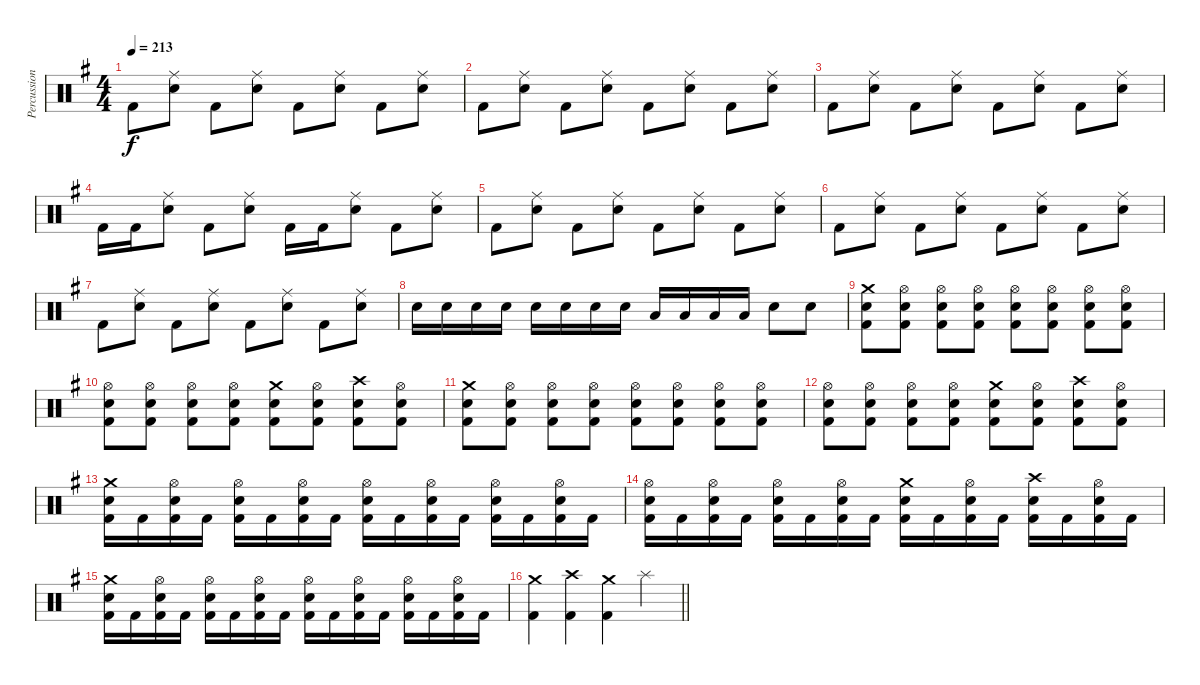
\track ("Percussion" "Percussion") {instrument percussion}
\staff {score}
\articulation defaults
\ts (4 4)
\tempo 213
\clef neutral
\ks eminor "Kick (hit) 2".8{dy f}
("Ride (middle)" "Snare (hit) 2").8 "Kick (hit) 2".8 ("Ride (middle)" "Snare (hit) 2").8 "Kick (hit) 2".8 ("Ride (middle)" "Snare (hit) 2").8 "Kick (hit) 2".8 ("Ride (middle)" "Snare (hit) 2").8 |
"Kick (hit) 2".8 ("Ride (middle)" "Snare (hit) 2").8 "Kick (hit) 2".8 ("Ride (middle)" "Snare (hit) 2").8 "Kick (hit) 2".8 ("Ride (middle)" "Snare (hit) 2").8 "Kick (hit) 2".8 ("Ride (middle)" "Snare (hit) 2").8 |
"Kick (hit) 2".8 ("Ride (middle)" "Snare (hit) 2").8 "Kick (hit) 2".8 ("Ride (middle)" "Snare (hit) 2").8 "Kick (hit) 2".8 ("Ride (middle)" "Snare (hit) 2").8 "Kick (hit) 2".8 ("Ride (middle)" "Snare (hit) 2").8 |
"Kick (hit) 2".16 "Kick (hit) 2".16 ("Ride (middle)" "Snare (hit) 2").8 "Kick (hit) 2".8 ("Ride (middle)" "Snare (hit) 2").8 "Kick (hit) 2".16 "Kick (hit) 2".16 ("Ride (middle)" "Snare (hit) 2").8 "Kick (hit) 2".8 ("Ride (middle)" "Snare (hit) 2").8 |
"Kick (hit) 2".8 ("Ride (middle)" "Snare (hit) 2").8 "Kick (hit) 2".8 ("Ride (middle)" "Snare (hit) 2").8 "Kick (hit) 2".8 ("Ride (middle)" "Snare (hit) 2").8 "Kick (hit) 2".8 ("Ride (middle)" "Snare (hit) 2").8 |
"Kick (hit) 2".8 ("Ride (middle)" "Snare (hit) 2").8 "Kick (hit) 2".8 ("Ride (middle)" "Snare (hit) 2").8 "Kick (hit) 2".8 ("Ride (middle)" "Snare (hit) 2").8 "Kick (hit) 2".8 ("Ride (middle)" "Snare (hit) 2").8 |
"Kick (hit) 2".8 ("Ride (middle)" "Snare (hit) 2").8 "Kick (hit) 2".8 ("Ride (middle)" "Snare (hit) 2").8 "Kick (hit) 2".8 ("Ride (middle)" "Snare (hit) 2").8 "Kick (hit) 2".8 ("Ride (middle)" "Snare (hit) 2").8 |
"Snare (hit) 2".16 "Snare (hit) 2".16 "Snare (hit) 2".16 "Snare (hit) 2".16 "Snare (hit) 2".16 "Snare (hit) 2".16 "Snare (hit) 2".16 "Snare (hit) 2".16 "Low Tom (hit)".16 "Low Tom (hit)".16 "Low Tom (hit)".16 "Low Tom (hit)".16 "Snare (hit) 2".8 "Snare (hit) 2".8 |
("Crash medium (hit)" "Snare (hit) 2" "Kick (hit) 2").8 ("Hi-Hat (open)" "Snare (hit) 2" "Kick (hit) 2").8 ("Hi-Hat (open)" "Snare (hit) 2" "Kick (hit) 2").8 ("Hi-Hat (open)" "Snare (hit) 2" "Kick (hit) 2").8 ("Hi-Hat (open)" "Snare (hit) 2" "Kick (hit) 2").8 ("Hi-Hat (open)" "Snare (hit) 2" "Kick (hit) 2").8 ("Hi-Hat (open)" "Snare (hit) 2" "Kick (hit) 2").8 ("Hi-Hat (open)" "Snare (hit) 2" "Kick (hit) 2").8 |
("Hi-Hat (open)" "Snare (hit) 2" "Kick (hit) 2").8 ("Hi-Hat (open)" "Snare (hit) 2" "Kick (hit) 2").8 ("Hi-Hat (open)" "Snare (hit) 2" "Kick (hit) 2").8 ("Hi-Hat (open)" "Snare (hit) 2" "Kick (hit) 2").8 ("Crash medium (hit)" "Snare (hit) 2" "Kick (hit) 2").8 ("Hi-Hat (open)" "Snare (hit) 2" "Kick (hit) 2").8 ("Crash high (hit)" "Snare (hit) 2" "Kick (hit) 2").8 ("Hi-Hat (open)" "Snare (hit) 2" "Kick (hit) 2").8 |
("Crash medium (hit)" "Snare (hit) 2" "Kick (hit) 2").8 ("Hi-Hat (open)" "Snare (hit) 2" "Kick (hit) 2").8 ("Hi-Hat (open)" "Snare (hit) 2" "Kick (hit) 2").8 ("Hi-Hat (open)" "Snare (hit) 2" "Kick (hit) 2").8 ("Hi-Hat (open)" "Snare (hit) 2" "Kick (hit) 2").8 ("Hi-Hat (open)" "Snare (hit) 2" "Kick (hit) 2").8 ("Hi-Hat (open)" "Snare (hit) 2" "Kick (hit) 2").8 ("Hi-Hat (open)" "Snare (hit) 2" "Kick (hit) 2").8 |
("Hi-Hat (open)" "Snare (hit) 2" "Kick (hit) 2").8 ("Hi-Hat (open)" "Snare (hit) 2" "Kick (hit) 2").8 ("Hi-Hat (open)" "Snare (hit) 2" "Kick (hit) 2").8 ("Hi-Hat (open)" "Snare (hit) 2" "Kick (hit) 2").8 ("Crash medium (hit)" "Snare (hit) 2" "Kick (hit) 2").8 ("Hi-Hat (open)" "Snare (hit) 2" "Kick (hit) 2").8 ("Crash high (hit)" "Snare (hit) 2" "Kick (hit) 2").8 ("Hi-Hat (open)" "Snare (hit) 2" "Kick (hit) 2").8 |
("Crash medium (hit)" "Snare (hit) 2" "Kick (hit) 2").16 "Kick (hit) 2".16 ("Hi-Hat (open)" "Snare (hit) 2" "Kick (hit) 2").16 "Kick (hit) 2".16 ("Hi-Hat (open)" "Snare (hit) 2" "Kick (hit) 2").16 "Kick (hit) 2".16 ("Hi-Hat (open)" "Snare (hit) 2" "Kick (hit) 2").16 "Kick (hit) 2".16 ("Hi-Hat (open)" "Snare (hit) 2" "Kick (hit) 2").16 "Kick (hit) 2".16 ("Hi-Hat (open)" "Snare (hit) 2" "Kick (hit) 2").16 "Kick (hit) 2".16 ("Hi-Hat (open)" "Snare (hit) 2" "Kick (hit) 2").16 "Kick (hit) 2".16 ("Hi-Hat (open)" "Snare (hit) 2" "Kick (hit) 2").16 "Kick (hit) 2".16 |
("Hi-Hat (open)" "Snare (hit) 2" "Kick (hit) 2").16 "Kick (hit) 2".16 ("Hi-Hat (open)" "Snare (hit) 2" "Kick (hit) 2").16 "Kick (hit) 2".16 ("Hi-Hat (open)" "Snare (hit) 2" "Kick (hit) 2").16 "Kick (hit) 2".16 ("Hi-Hat (open)" "Snare (hit) 2" "Kick (hit) 2").16 "Kick (hit) 2".16 ("Crash medium (hit)" "Snare (hit) 2" "Kick (hit) 2").16 "Kick (hit) 2".16 ("Hi-Hat (open)" "Snare (hit) 2" "Kick (hit) 2").16 "Kick (hit) 2".16 ("Crash high (hit)" "Snare (hit) 2" "Kick (hit) 2").16 "Kick (hit) 2".16 ("Hi-Hat (open)" "Snare (hit) 2" "Kick (hit) 2").16 "Kick (hit) 2".16 |
("Crash medium (hit)" "Snare (hit) 2" "Kick (hit) 2").16 "Kick (hit) 2".16 ("Hi-Hat (open)" "Snare (hit) 2" "Kick (hit) 2").16 "Kick (hit) 2".16 ("Hi-Hat (open)" "Snare (hit) 2" "Kick (hit) 2").16 "Kick (hit) 2".16 ("Hi-Hat (open)" "Snare (hit) 2" "Kick (hit) 2").16 "Kick (hit) 2".16 ("Hi-Hat (open)" "Snare (hit) 2" "Kick (hit) 2").16 "Kick (hit) 2".16 ("Hi-Hat (open)" "Snare (hit) 2" "Kick (hit) 2").16 "Kick (hit) 2".16 ("Hi-Hat (open)" "Snare (hit) 2" "Kick (hit) 2").16 "Kick (hit) 2".16 ("Hi-Hat (open)" "Snare (hit) 2" "Kick (hit) 2").16 "Kick (hit) 2".16 |
\barLineRight lightlight
("Crash medium (hit)" "Kick (hit) 2").4 ("Crash high (hit)" "Kick (hit) 2").4 ("Crash medium (hit)" "Kick (hit) 2").4 "Splash (hit)".4
